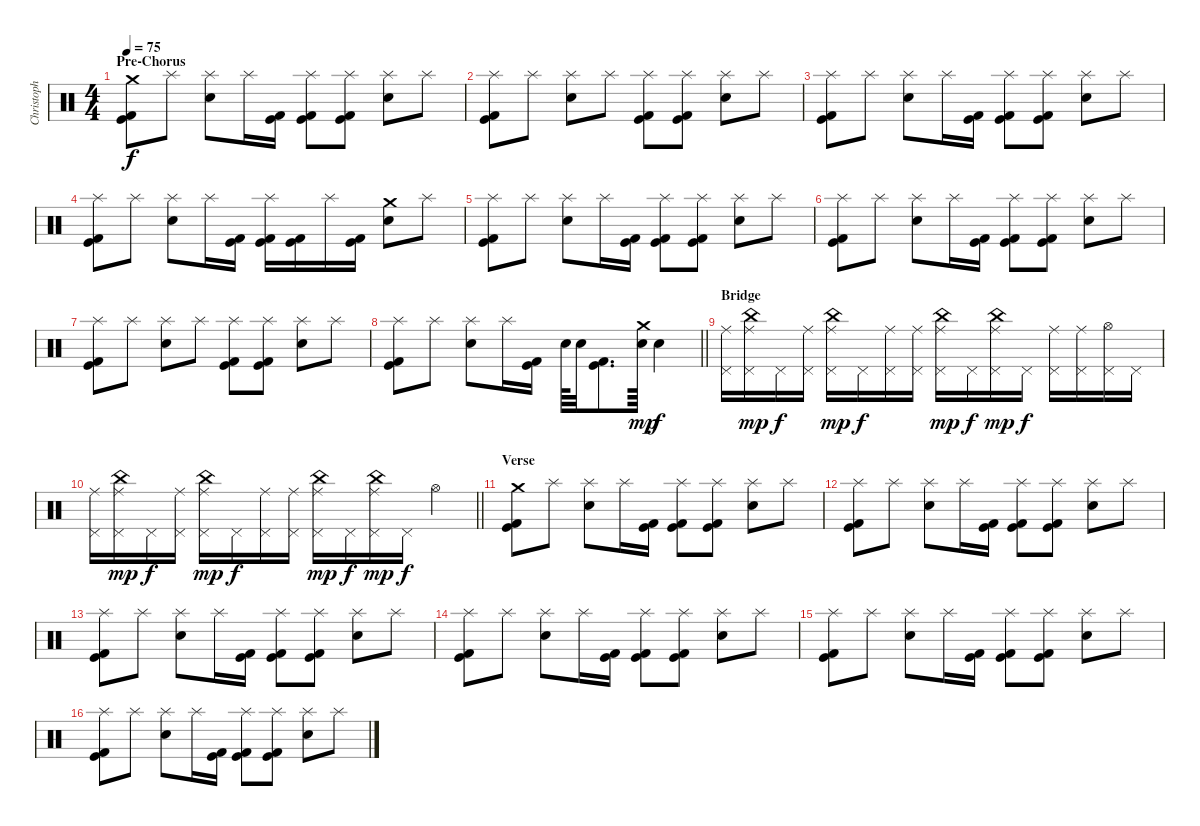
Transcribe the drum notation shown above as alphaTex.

\track ("Christoph" "Christoph") {instrument percussion}
\staff {score}
\articulation defaults
\ts (4 4)
\section ("" "Pre-Chorus")
\tempo 75
\clef neutral
\ks c
("Crash medium (hit)" "Kick (hit)" "Kick (hit) 2").8{dy f} "Splash (hit)".8 ("Splash (hit)" "Snare (hit) 2").8 "Splash (hit)".16 ("Kick (hit)" "Kick (hit) 2").16 ("Kick (hit) 2" "Kick (hit)" "Splash (hit)").8 ("Kick (hit) 2" "Kick (hit)" "Splash (hit)").8 ("Snare (hit) 2" "Splash (hit)").8 "Splash (hit)".8 |
("Splash (hit)" "Kick (hit)" "Kick (hit) 2").8 "Splash (hit)".8 ("Splash (hit)" "Snare (hit) 2").8 "Splash (hit)".8 ("Splash (hit)" "Kick (hit)" "Kick (hit) 2").8 ("Splash (hit)" "Kick (hit)" "Kick (hit) 2").8 ("Splash (hit)" "Snare (hit) 2").8 "Splash (hit)".8 |
("Splash (hit)" "Kick (hit)" "Kick (hit) 2").8 "Splash (hit)".8 ("Splash (hit)" "Snare (hit) 2").8 "Splash (hit)".16 ("Kick (hit)" "Kick (hit) 2").16 ("Kick (hit) 2" "Kick (hit)" "Splash (hit)").8 ("Kick (hit) 2" "Kick (hit)" "Splash (hit)").8 ("Snare (hit) 2" "Splash (hit)").8 "Splash (hit)".8 |
("Splash (hit)" "Kick (hit)" "Kick (hit) 2").8 "Splash (hit)".8 ("Splash (hit)" "Snare (hit) 2").8 "Splash (hit)".16 ("Kick (hit)" "Kick (hit) 2").16 ("Kick (hit) 2" "Kick (hit)" "Splash (hit)").16 ("Kick (hit) 2" "Kick (hit)").16 "Splash (hit)".16 ("Kick (hit)" "Kick (hit) 2").16 ("Snare (hit) 2" "Crash medium (hit)").8 "Splash (hit)".8 |
("Splash (hit)" "Kick (hit)" "Kick (hit) 2").8 "Splash (hit)".8 ("Splash (hit)" "Snare (hit) 2").8 "Splash (hit)".16 ("Kick (hit)" "Kick (hit) 2").16 ("Kick (hit) 2" "Kick (hit)" "Splash (hit)").8 ("Kick (hit) 2" "Kick (hit)" "Splash (hit)").8 ("Snare (hit) 2" "Splash (hit)").8 "Splash (hit)".8 |
("Splash (hit)" "Kick (hit)" "Kick (hit) 2").8 "Splash (hit)".8 ("Splash (hit)" "Snare (hit) 2").8 "Splash (hit)".16 ("Kick (hit)" "Kick (hit) 2").16 ("Kick (hit) 2" "Kick (hit)" "Splash (hit)").8 ("Kick (hit) 2" "Kick (hit)" "Splash (hit)").8 ("Snare (hit) 2" "Splash (hit)").8 "Splash (hit)".8 |
("Splash (hit)" "Kick (hit)" "Kick (hit) 2").8 "Splash (hit)".8 ("Splash (hit)" "Snare (hit) 2").8 "Splash (hit)".8 ("Splash (hit)" "Kick (hit)" "Kick (hit) 2").8 ("Splash (hit)" "Kick (hit)" "Kick (hit) 2").8 ("Splash (hit)" "Snare (hit) 2").8 "Splash (hit)".8 |
\barLineRight lightlight
("Splash (hit)" "Kick (hit)" "Kick (hit) 2").8 "Splash (hit)".8 ("Splash (hit)" "Snare (hit) 2").8 "Splash (hit)".16 ("Kick (hit)" "Kick (hit) 2").16 "Snare (hit) 2".64 "Snare (hit) 2".32 ("Kick (hit)" "Kick (hit) 2").8{d} ("Crash medium (hit)" "Snare (hit) 2").64{dy mp} "Snare (hit) 2".4{dy f} |
\section ("" "Bridge")
("Pedal Hi-Hat (hit)" "Ride (middle)").16 ("Pedal Hi-Hat (hit)" "Ride (middle)" "China (hit)").16{dy mp} "Pedal Hi-Hat (hit)".16{dy f} ("Pedal Hi-Hat (hit)" "Ride (middle)").16 ("Pedal Hi-Hat (hit)" "Ride (middle)" "China (hit)").16{dy mp} "Pedal Hi-Hat (hit)".16{dy f} ("Pedal Hi-Hat (hit)" "Ride (middle)").16 ("Pedal Hi-Hat (hit)" "Ride (middle)").16 ("Pedal Hi-Hat (hit)" "Ride (middle)" "China (hit)").16{dy mp} "Pedal Hi-Hat (hit)".16{dy f} ("Pedal Hi-Hat (hit)" "Ride (middle)" "China (hit)").16{dy mp} "Pedal Hi-Hat (hit)".16{dy f} ("Pedal Hi-Hat (hit)" "Ride (middle)").16 ("Pedal Hi-Hat (hit)" "Ride (middle)").16 ("Pedal Hi-Hat (hit)" "Hi-Hat (open)").16 "Pedal Hi-Hat (hit)".16 |
\barLineRight lightlight
("Pedal Hi-Hat (hit)" "Ride (middle)").16 ("Pedal Hi-Hat (hit)" "Ride (middle)" "China (hit)").16{dy mp} "Pedal Hi-Hat (hit)".16{dy f} ("Pedal Hi-Hat (hit)" "Ride (middle)").16 ("Pedal Hi-Hat (hit)" "Ride (middle)" "China (hit)").16{dy mp} "Pedal Hi-Hat (hit)".16{dy f} ("Pedal Hi-Hat (hit)" "Ride (middle)").16 ("Pedal Hi-Hat (hit)" "Ride (middle)").16 ("Pedal Hi-Hat (hit)" "Ride (middle)" "China (hit)").16{dy mp} "Pedal Hi-Hat (hit)".16{dy f} ("Pedal Hi-Hat (hit)" "Ride (middle)" "China (hit)").16{dy mp} "Pedal Hi-Hat (hit)".16{dy f} "Hi-Hat (open)".4 |
\section ("" "Verse")
("Crash medium (hit)" "Kick (hit)" "Kick (hit) 2").8 "Splash (hit)".8 ("Splash (hit)" "Snare (hit) 2").8 "Splash (hit)".16 ("Kick (hit)" "Kick (hit) 2").16 ("Kick (hit) 2" "Kick (hit)" "Splash (hit)").8 ("Kick (hit) 2" "Kick (hit)" "Splash (hit)").8 ("Snare (hit) 2" "Splash (hit)").8 "Splash (hit)".8 |
("Splash (hit)" "Kick (hit)" "Kick (hit) 2").8 "Splash (hit)".8 ("Splash (hit)" "Snare (hit) 2").8 "Splash (hit)".16 ("Kick (hit)" "Kick (hit) 2").16 ("Kick (hit) 2" "Kick (hit)" "Splash (hit)").8 ("Kick (hit) 2" "Kick (hit)" "Splash (hit)").8 ("Snare (hit) 2" "Splash (hit)").8 "Splash (hit)".8 |
("Splash (hit)" "Kick (hit)" "Kick (hit) 2").8 "Splash (hit)".8 ("Splash (hit)" "Snare (hit) 2").8 "Splash (hit)".16 ("Kick (hit)" "Kick (hit) 2").16 ("Kick (hit) 2" "Kick (hit)" "Splash (hit)").8 ("Kick (hit) 2" "Kick (hit)" "Splash (hit)").8 ("Snare (hit) 2" "Splash (hit)").8 "Splash (hit)".8 |
("Splash (hit)" "Kick (hit)" "Kick (hit) 2").8 "Splash (hit)".8 ("Splash (hit)" "Snare (hit) 2").8 "Splash (hit)".16 ("Kick (hit)" "Kick (hit) 2").16 ("Kick (hit) 2" "Kick (hit)" "Splash (hit)").8 ("Kick (hit) 2" "Kick (hit)" "Splash (hit)").8 ("Snare (hit) 2" "Splash (hit)").8 "Splash (hit)".8 |
("Splash (hit)" "Kick (hit)" "Kick (hit) 2").8 "Splash (hit)".8 ("Splash (hit)" "Snare (hit) 2").8 "Splash (hit)".16 ("Kick (hit)" "Kick (hit) 2").16 ("Kick (hit) 2" "Kick (hit)" "Splash (hit)").8 ("Kick (hit) 2" "Kick (hit)" "Splash (hit)").8 ("Snare (hit) 2" "Splash (hit)").8 "Splash (hit)".8 |
("Splash (hit)" "Kick (hit)" "Kick (hit) 2").8 "Splash (hit)".8 ("Splash (hit)" "Snare (hit) 2").8 "Splash (hit)".16 ("Kick (hit)" "Kick (hit) 2").16 ("Kick (hit) 2" "Kick (hit)" "Splash (hit)").8 ("Kick (hit) 2" "Kick (hit)" "Splash (hit)").8 ("Snare (hit) 2" "Splash (hit)").8 "Splash (hit)".8
